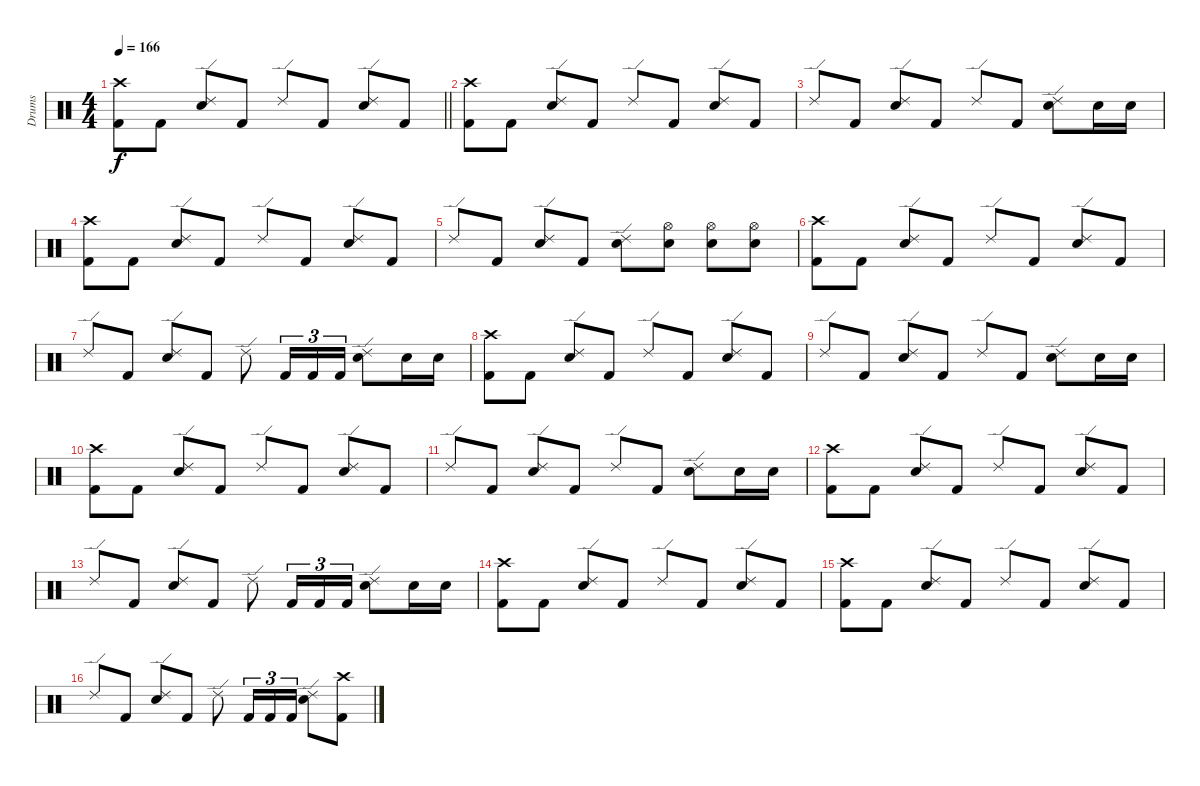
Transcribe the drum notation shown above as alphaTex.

\track ("Drums" "Drums") {instrument percussion}
\staff {score}
\articulation defaults
\ts (4 4)
\tempo 166
\clef neutral
\barLineRight lightlight
\ks c
("Crash high (hit)" "Kick (hit) 2").8{dy f} "Kick (hit) 2".8 ("Ride (edge) 2" "Electric Snare (hit)").8 "Kick (hit) 2".8 "Ride (edge) 2".8 "Kick (hit) 2".8 ("Ride (edge) 2" "Electric Snare (hit)").8 "Kick (hit) 2".8 |
("Crash high (hit)" "Kick (hit) 2").8 "Kick (hit) 2".8 ("Ride (edge) 2" "Electric Snare (hit)").8 "Kick (hit) 2".8 "Ride (edge) 2".8 "Kick (hit) 2".8 ("Ride (edge) 2" "Electric Snare (hit)").8 "Kick (hit) 2".8 |
"Ride (edge) 2".8 "Kick (hit) 2".8 ("Ride (edge) 2" "Electric Snare (hit)").8 "Kick (hit) 2".8 "Ride (edge) 2".8 "Kick (hit) 2".8 ("Ride (edge) 2" "Electric Snare (hit)").8 "Electric Snare (hit)".16 "Electric Snare (hit)".16 |
("Crash high (hit)" "Kick (hit) 2").8 "Kick (hit) 2".8 ("Ride (edge) 2" "Electric Snare (hit)").8 "Kick (hit) 2".8 "Ride (edge) 2".8 "Kick (hit) 2".8 ("Ride (edge) 2" "Electric Snare (hit)").8 "Kick (hit) 2".8 |
"Ride (edge) 2".8 "Kick (hit) 2".8 ("Ride (edge) 2" "Electric Snare (hit)").8 "Kick (hit) 2".8 ("Ride (edge) 2" "Electric Snare (hit)").8 ("Hi-Hat (open)" "Electric Snare (hit)").8 ("Hi-Hat (open)" "Electric Snare (hit)").8 ("Hi-Hat (open)" "Electric Snare (hit)").8 |
("Crash high (hit)" "Kick (hit) 2").8 "Kick (hit) 2".8 ("Ride (edge) 2" "Electric Snare (hit)").8 "Kick (hit) 2".8 "Ride (edge) 2".8 "Kick (hit) 2".8 ("Ride (edge) 2" "Electric Snare (hit)").8 "Kick (hit) 2".8 |
"Ride (edge) 2".8 "Kick (hit) 2".8 ("Ride (edge) 2" "Electric Snare (hit)").8 "Kick (hit) 2".8 "Ride (edge) 2".8 "Kick (hit) 2".16{tu (3 2)} "Kick (hit) 2".16{tu (3 2)} "Kick (hit) 2".16{tu (3 2)} ("Ride (edge) 2" "Electric Snare (hit)").8 "Electric Snare (hit)".16 "Electric Snare (hit)".16 |
("Crash high (hit)" "Kick (hit) 2").8 "Kick (hit) 2".8 ("Ride (edge) 2" "Electric Snare (hit)").8 "Kick (hit) 2".8 "Ride (edge) 2".8 "Kick (hit) 2".8 ("Ride (edge) 2" "Electric Snare (hit)").8 "Kick (hit) 2".8 |
"Ride (edge) 2".8 "Kick (hit) 2".8 ("Ride (edge) 2" "Electric Snare (hit)").8 "Kick (hit) 2".8 "Ride (edge) 2".8 "Kick (hit) 2".8 ("Ride (edge) 2" "Electric Snare (hit)").8 "Electric Snare (hit)".16 "Electric Snare (hit)".16 |
("Crash high (hit)" "Kick (hit) 2").8 "Kick (hit) 2".8 ("Ride (edge) 2" "Electric Snare (hit)").8 "Kick (hit) 2".8 "Ride (edge) 2".8 "Kick (hit) 2".8 ("Ride (edge) 2" "Electric Snare (hit)").8 "Kick (hit) 2".8 |
"Ride (edge) 2".8 "Kick (hit) 2".8 ("Ride (edge) 2" "Electric Snare (hit)").8 "Kick (hit) 2".8 "Ride (edge) 2".8 "Kick (hit) 2".8 ("Ride (edge) 2" "Electric Snare (hit)").8 "Electric Snare (hit)".16 "Electric Snare (hit)".16 |
("Crash high (hit)" "Kick (hit) 2").8 "Kick (hit) 2".8 ("Ride (edge) 2" "Electric Snare (hit)").8 "Kick (hit) 2".8 "Ride (edge) 2".8 "Kick (hit) 2".8 ("Ride (edge) 2" "Electric Snare (hit)").8 "Kick (hit) 2".8 |
"Ride (edge) 2".8 "Kick (hit) 2".8 ("Ride (edge) 2" "Electric Snare (hit)").8 "Kick (hit) 2".8 "Ride (edge) 2".8 "Kick (hit) 2".16{tu (3 2)} "Kick (hit) 2".16{tu (3 2)} "Kick (hit) 2".16{tu (3 2)} ("Ride (edge) 2" "Electric Snare (hit)").8 "Electric Snare (hit)".16 "Electric Snare (hit)".16 |
("Crash high (hit)" "Kick (hit) 2").8 "Kick (hit) 2".8 ("Ride (edge) 2" "Electric Snare (hit)").8 "Kick (hit) 2".8 "Ride (edge) 2".8 "Kick (hit) 2".8 ("Ride (edge) 2" "Electric Snare (hit)").8 "Kick (hit) 2".8 |
("Crash high (hit)" "Kick (hit) 2").8 "Kick (hit) 2".8 ("Ride (edge) 2" "Electric Snare (hit)").8 "Kick (hit) 2".8 "Ride (edge) 2".8 "Kick (hit) 2".8 ("Ride (edge) 2" "Electric Snare (hit)").8 "Kick (hit) 2".8 |
"Ride (edge) 2".8 "Kick (hit) 2".8 ("Ride (edge) 2" "Electric Snare (hit)").8 "Kick (hit) 2".8 "Ride (edge) 2".8 "Kick (hit) 2".16{tu (3 2)} "Kick (hit) 2".16{tu (3 2)} "Kick (hit) 2".16{tu (3 2)} ("Ride (edge) 2" "Electric Snare (hit)").8 ("Crash high (hit)" "Kick (hit) 2").8
